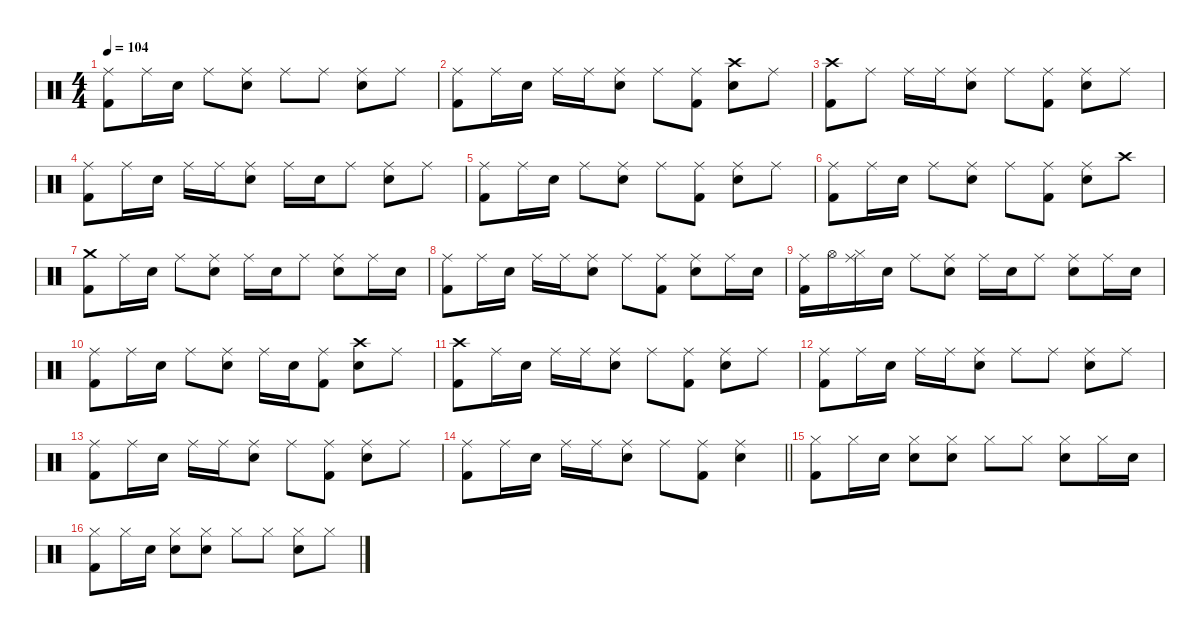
\defaultSystemsLayout 4
\hideDynamics
\bracketExtendMode nobrackets
\singleTrackTrackNamePolicy hidden
\multiTrackTrackNamePolicy hidden
\firstSystemTrackNameMode fullname
\firstSystemTrackNameOrientation horizontal
\otherSystemsTrackNameOrientation horizontal
\track ("Drums" "drm.") {instrument percussion}
\staff {score}
\articulation defaults
\ts (4 4)
\tempo 104
\clef neutral
\ks c
("Ride (middle)" "Kick (hit) 2").8{dy ff beam Down} "Ride (middle)".16{beam Down} "Snare (hit) 2".16{dy mf beam Down} "Ride (middle)".8{dy ff beam Down} ("Ride (middle)" "Snare (hit) 2").8{beam Down} "Ride (middle)".8{beam Down} "Ride (middle)".8{beam Down} ("Ride (middle)" "Snare (hit) 2").8{beam Down} "Ride (middle)".8{beam Down} |
("Ride (middle)" "Kick (hit) 2").8{beam Down} "Ride (middle)".16{beam Down} "Snare (hit) 2".16{dy mf beam Down} "Ride (middle)".16{dy ff beam Down} "Ride (middle)".16{dy f beam Down} ("Ride (middle)" "Snare (hit) 2").8{beam Down} "Ride (middle)".8{dy ff beam Down} ("Ride (middle)" "Kick (hit) 2").8{beam Down} ("Crash high (hit)" "Snare (hit) 2").8{dy mf beam Down} "Ride (middle)".8{dy ff beam Down} |
("Crash high (hit)" "Kick (hit) 2").8{beam Down} "Ride (middle)".8{beam Down} "Ride (middle)".16{beam Down} "Ride (middle)".16{dy f beam Down} ("Ride (middle)" "Snare (hit) 2").8{beam Down} "Ride (middle)".8{dy ff beam Down} ("Ride (middle)" "Kick (hit) 2").8{beam Down} ("Ride (middle)" "Snare (hit) 2").8{beam Down} "Ride (middle)".8{beam Down} |
("Ride (middle)" "Kick (hit) 2").8{beam Down} "Ride (middle)".16{beam Down} "Snare (hit) 2".16{dy mf beam Down} "Ride (middle)".16{dy ff beam Down} "Ride (middle)".16{dy f beam Down} ("Ride (middle)" "Snare (hit) 2").8{beam Down} "Ride (middle)".16{dy ff beam Down} "Snare (hit) 2".16{dy mp beam Down} "Ride (middle)".8{dy ff beam Down} ("Ride (middle)" "Snare (hit) 2").8{beam Down} "Ride (middle)".8{beam Down} |
("Ride (middle)" "Kick (hit) 2").8{beam Down} "Ride (middle)".16{beam Down} "Snare (hit) 2".16{dy mf beam Down} "Ride (middle)".8{dy ff beam Down} ("Ride (middle)" "Snare (hit) 2").8{beam Down} "Ride (middle)".8{beam Down} ("Ride (middle)" "Kick (hit) 2").8{beam Down} ("Ride (middle)" "Snare (hit) 2").8{beam Down} "Ride (middle)".8{beam Down} |
("Ride (middle)" "Kick (hit) 2").8{beam Down} "Ride (middle)".16{beam Down} "Snare (hit) 2".16{dy mf beam Down} "Ride (middle)".8{dy ff beam Down} ("Ride (middle)" "Snare (hit) 2").8{beam Down} "Ride (middle)".8{beam Down} ("Ride (middle)" "Kick (hit) 2").8{beam Down} ("Ride (middle)" "Snare (hit) 2").8{beam Down} "Crash high (hit)".8{dy mf beam Down} |
("Crash medium (hit)" "Kick (hit) 2").8{dy ff beam Down} "Ride (middle)".16{beam Down} "Snare (hit) 2".16{dy mf beam Down} "Ride (middle)".8{dy ff beam Down} ("Ride (middle)" "Snare (hit) 2").8{beam Down} "Ride (middle)".16{beam Down} "Snare (hit) 2".16{dy mf beam Down} "Ride (middle)".8{dy ff beam Down} ("Ride (middle)" "Snare (hit) 2").8{beam Down} "Ride (middle)".16{beam Down} "Snare (hit) 2".16{dy mf beam Down} |
("Ride (middle)" "Kick (hit) 2").8{dy ff beam Down} "Ride (middle)".16{beam Down} "Snare (hit) 2".16{dy mf beam Down} "Ride (middle)".16{dy ff beam Down} "Ride (middle)".16{beam Down} ("Ride (middle)" "Snare (hit) 2").8{dy f beam Down} "Ride (middle)".8{dy ff beam Down} ("Ride (middle)" "Kick (hit) 2").8{beam Down} ("Ride (middle)" "Snare (hit) 2").8{beam Down} "Ride (middle)".16{beam Down} "Snare (hit) 2".16{dy mf beam Down} |
("Ride (middle)" "Kick (hit) 2").16{dy ff beam Down} "Hi-Hat (open)".16{dy f beam Down} ("Ride (middle)" "Hi-Hat (closed)").16{beam Down} "Snare (hit) 2".16{dy mf beam Down} "Ride (middle)".8{dy ff beam Down} ("Ride (middle)" "Snare (hit) 2").8{beam Down} "Ride (middle)".16{beam Down} "Snare (hit) 2".16{dy mf beam Down} "Ride (middle)".8{dy ff beam Down} ("Ride (middle)" "Snare (hit) 2").8{beam Down} "Ride (middle)".16{beam Down} "Snare (hit) 2".16{dy mf beam Down} |
("Ride (middle)" "Kick (hit) 2").8{dy ff beam Down} "Ride (middle)".16{beam Down} "Snare (hit) 2".16{dy mf beam Down} "Ride (middle)".8{dy ff beam Down} ("Ride (middle)" "Snare (hit) 2").8{beam Down} "Ride (middle)".16{beam Down} "Snare (hit) 2".16{dy mf beam Down} ("Ride (middle)" "Kick (hit) 2").8{dy ff beam Down} ("Crash high (hit)" "Snare (hit) 2").8{dy mf beam Down} "Ride (middle)".8{dy ff beam Down} |
("Crash high (hit)" "Kick (hit) 2").8{dy f beam Down} "Ride (middle)".16{beam Down} "Snare (hit) 2".16{dy mf beam Down} "Ride (middle)".16{dy f beam Down} "Ride (middle)".16{beam Down} ("Ride (middle)" "Snare (hit) 2").8{dy ff beam Down} "Ride (middle)".8{beam Down} ("Ride (middle)" "Kick (hit) 2").8{beam Down} ("Ride (middle)" "Snare (hit) 2").8{beam Down} "Ride (middle)".8{beam Down} |
("Ride (middle)" "Kick (hit) 2").8{beam Down} "Ride (middle)".16{beam Down} "Snare (hit) 2".16{dy mf beam Down} "Ride (middle)".16{dy f beam Down} "Ride (middle)".16{dy ff beam Down} ("Ride (middle)" "Snare (hit) 2").8{dy f beam Down} "Ride (middle)".8{dy ff beam Down} "Ride (middle)".8{beam Down} ("Ride (middle)" "Snare (hit) 2").8{beam Down} "Ride (middle)".8{beam Down} |
("Ride (middle)" "Kick (hit) 2").8{beam Down} "Ride (middle)".16{beam Down} "Snare (hit) 2".16{dy mf beam Down} "Ride (middle)".16{dy f beam Down} "Ride (middle)".16{dy ff beam Down} ("Ride (middle)" "Snare (hit) 2").8{dy f beam Down} "Ride (middle)".8{dy ff beam Down} ("Ride (middle)" "Kick (hit) 2").8{beam Down} ("Ride (middle)" "Snare (hit) 2").8{beam Down} "Ride (middle)".8{beam Down} |
\barLineRight lightlight
("Ride (middle)" "Kick (hit) 2").8{beam Down} "Ride (middle)".16{beam Down} "Snare (hit) 2".16{dy mf beam Down} "Ride (middle)".16{dy ff beam Down} "Ride (middle)".16{beam Down} ("Ride (middle)" "Snare (hit) 2").8{beam Down} "Ride (middle)".8{beam Down} ("Ride (middle)" "Kick (hit) 2").8{beam Down} ("Ride (middle)" "Snare (hit) 2").4{beam Down} |
("Hi-Hat (closed)" "Kick (hit) 2").8{dy f beam Down} "Hi-Hat (closed)".16{beam Down} "Snare (hit) 2".16{dy mp beam Down} ("Hi-Hat (closed)" "Snare (hit) 2").8{dy f beam Down} ("Hi-Hat (closed)" "Snare (hit) 2").8{beam Down} "Hi-Hat (closed)".8{beam Down} "Hi-Hat (closed)".8{beam Down} ("Hi-Hat (closed)" "Snare (hit) 2").8{beam Down} "Hi-Hat (closed)".16{beam Down} "Snare (hit) 2".16{dy mp beam Down} |
("Hi-Hat (closed)" "Kick (hit) 2").8{dy f beam Down} "Hi-Hat (closed)".16{beam Down} "Snare (hit) 2".16{dy mp beam Down} ("Hi-Hat (closed)" "Snare (hit) 2").8{dy f beam Down} ("Hi-Hat (closed)" "Snare (hit) 2").8{beam Down} "Hi-Hat (closed)".8{beam Down} "Hi-Hat (closed)".8{beam Down} ("Hi-Hat (closed)" "Snare (hit) 2").8{beam Down} "Hi-Hat (closed)".8{beam Down}
